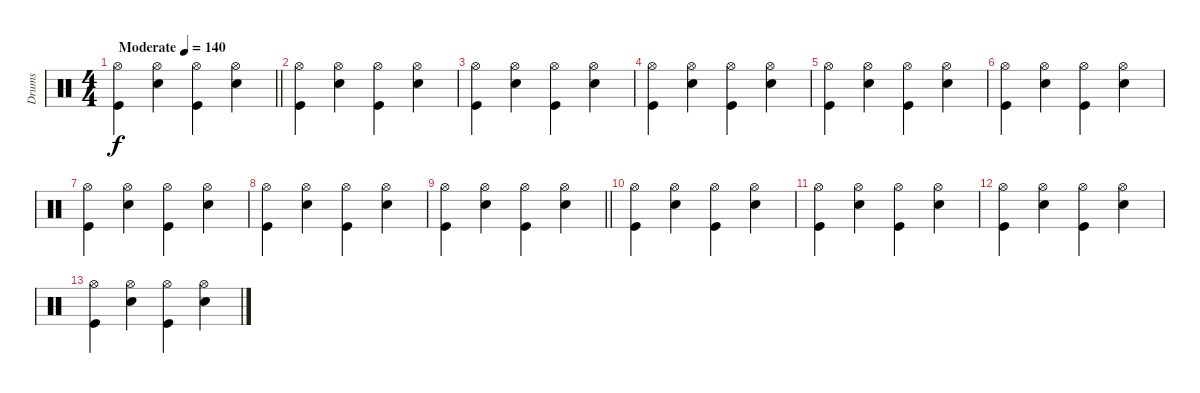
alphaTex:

\track ("Drums" "Drums") {instrument percussion}
\staff {score}
\articulation defaults
\ts (4 4)
\tempo (140 "Moderate")
\clef neutral
\barLineRight lightlight
\ks c
("Hi-Hat (open)" "Kick (hit)").4{dy f} ("Snare (hit) 2" "Hi-Hat (open)").4 ("Hi-Hat (open)" "Kick (hit)").4 ("Snare (hit) 2" "Hi-Hat (open)").4 |
("Hi-Hat (open)" "Kick (hit)").4 ("Snare (hit) 2" "Hi-Hat (open)").4 ("Hi-Hat (open)" "Kick (hit)").4 ("Snare (hit) 2" "Hi-Hat (open)").4 |
("Hi-Hat (open)" "Kick (hit)").4 ("Snare (hit) 2" "Hi-Hat (open)").4 ("Hi-Hat (open)" "Kick (hit)").4 ("Snare (hit) 2" "Hi-Hat (open)").4 |
("Hi-Hat (open)" "Kick (hit)").4 ("Snare (hit) 2" "Hi-Hat (open)").4 ("Hi-Hat (open)" "Kick (hit)").4 ("Snare (hit) 2" "Hi-Hat (open)").4 |
("Hi-Hat (open)" "Kick (hit)").4 ("Snare (hit) 2" "Hi-Hat (open)").4 ("Hi-Hat (open)" "Kick (hit)").4 ("Snare (hit) 2" "Hi-Hat (open)").4 |
("Hi-Hat (open)" "Kick (hit)").4 ("Snare (hit) 2" "Hi-Hat (open)").4 ("Hi-Hat (open)" "Kick (hit)").4 ("Snare (hit) 2" "Hi-Hat (open)").4 |
("Hi-Hat (open)" "Kick (hit)").4 ("Snare (hit) 2" "Hi-Hat (open)").4 ("Hi-Hat (open)" "Kick (hit)").4 ("Snare (hit) 2" "Hi-Hat (open)").4 |
("Hi-Hat (open)" "Kick (hit)").4 ("Snare (hit) 2" "Hi-Hat (open)").4 ("Hi-Hat (open)" "Kick (hit)").4 ("Snare (hit) 2" "Hi-Hat (open)").4 |
\barLineRight lightlight
("Hi-Hat (open)" "Kick (hit)").4 ("Snare (hit) 2" "Hi-Hat (open)").4 ("Hi-Hat (open)" "Kick (hit)").4 ("Snare (hit) 2" "Hi-Hat (open)").4 |
("Hi-Hat (open)" "Kick (hit)").4 ("Snare (hit) 2" "Hi-Hat (open)").4 ("Hi-Hat (open)" "Kick (hit)").4 ("Snare (hit) 2" "Hi-Hat (open)").4 |
("Hi-Hat (open)" "Kick (hit)").4 ("Snare (hit) 2" "Hi-Hat (open)").4 ("Hi-Hat (open)" "Kick (hit)").4 ("Snare (hit) 2" "Hi-Hat (open)").4 |
("Hi-Hat (open)" "Kick (hit)").4 ("Snare (hit) 2" "Hi-Hat (open)").4 ("Hi-Hat (open)" "Kick (hit)").4 ("Snare (hit) 2" "Hi-Hat (open)").4 |
("Hi-Hat (open)" "Kick (hit)").4 ("Snare (hit) 2" "Hi-Hat (open)").4 ("Hi-Hat (open)" "Kick (hit)").4 ("Snare (hit) 2" "Hi-Hat (open)").4
